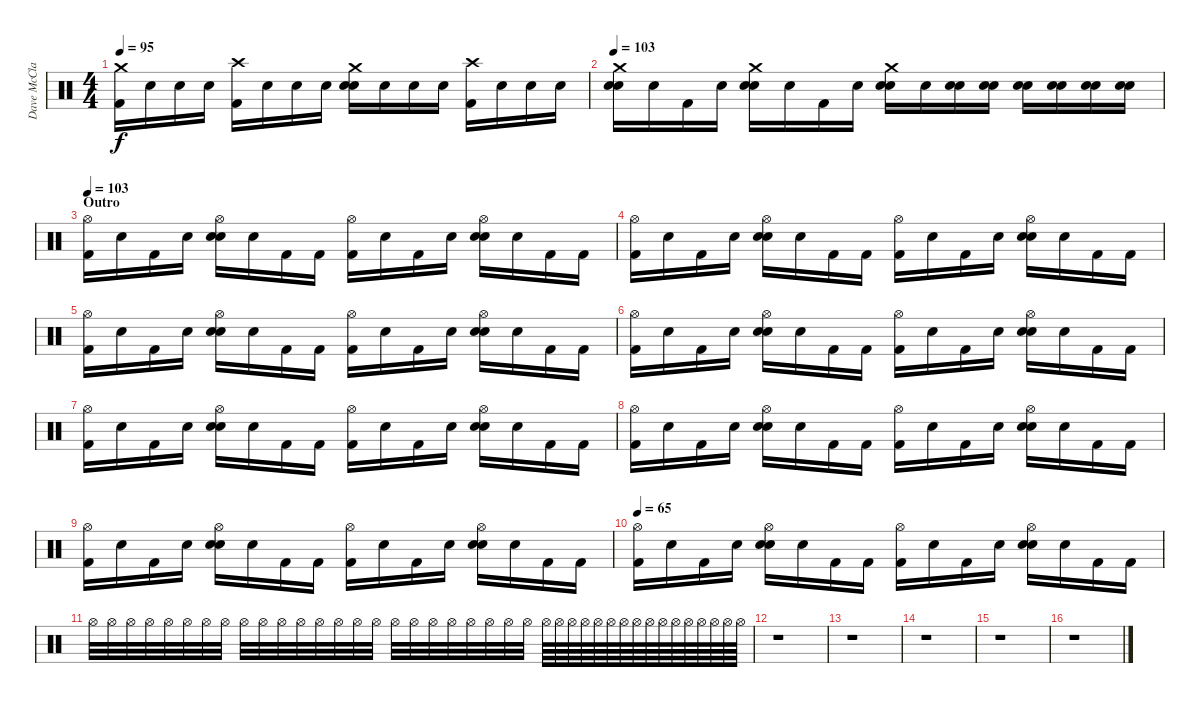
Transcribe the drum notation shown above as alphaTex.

\track ("Dave McClain - Drums" "Dave McCla") {instrument percussion}
\staff {score}
\articulation defaults
\ts (4 4)
\tempo 95
\clef neutral
\ks c
("Crash medium (hit)" "Kick (hit) 2").16{dy f} "Snare (hit)".16 "Snare (hit)".16 "Snare (hit)".16 ("Crash high (hit)" "Kick (hit) 2").16 "Snare (hit)".16 "Snare (hit)".16 "Snare (hit)".16 ("Crash medium (hit)" "Electric Snare (hit)" "Snare (hit) 2").16 "Snare (hit)".16 "Snare (hit)".16 "Snare (hit)".16 ("Crash high (hit)" "Kick (hit) 2").16 "Snare (hit)".16 "Snare (hit)".16 "Snare (hit)".16 |
\tempo 103
("Crash medium (hit)" "Electric Snare (hit)" "Snare (hit) 2").16 "Snare (hit)".16 "Kick (hit) 2".16 "Snare (hit)".16 ("Crash medium (hit)" "Electric Snare (hit)" "Snare (hit) 2").16 "Snare (hit)".16 "Kick (hit) 2".16 "Snare (hit)".16 ("Crash medium (hit)" "Electric Snare (hit)" "Snare (hit) 2").16 "Snare (hit)".16 ("Electric Snare (hit)" "Snare (hit) 2").16 ("Electric Snare (hit)" "Snare (hit) 2").16 ("Electric Snare (hit)" "Snare (hit) 2").16 ("Electric Snare (hit)" "Snare (hit) 2").16 ("Electric Snare (hit)" "Snare (hit) 2").16 ("Electric Snare (hit)" "Snare (hit) 2").16 |
\section ("" "Outro")
\tempo 103
("Hi-Hat (open)" "Kick (hit) 2").16 "Snare (hit)".16 "Kick (hit) 2".16 "Snare (hit)".16 ("Hi-Hat (open)" "Electric Snare (hit)" "Snare (hit) 2").16 "Snare (hit)".16 "Kick (hit) 2".16 "Kick (hit) 2".16 ("Hi-Hat (open)" "Kick (hit) 2").16 "Snare (hit)".16 "Kick (hit) 2".16 "Snare (hit)".16 ("Hi-Hat (open)" "Electric Snare (hit)" "Snare (hit) 2").16 "Snare (hit)".16 "Kick (hit) 2".16 "Kick (hit) 2".16 |
("Hi-Hat (open)" "Kick (hit) 2").16 "Snare (hit)".16 "Kick (hit) 2".16 "Snare (hit)".16 ("Hi-Hat (open)" "Electric Snare (hit)" "Snare (hit) 2").16 "Snare (hit)".16 "Kick (hit) 2".16 "Kick (hit) 2".16 ("Hi-Hat (open)" "Kick (hit) 2").16 "Snare (hit)".16 "Kick (hit) 2".16 "Snare (hit)".16 ("Hi-Hat (open)" "Electric Snare (hit)" "Snare (hit) 2").16 "Snare (hit)".16 "Kick (hit) 2".16 "Kick (hit) 2".16 |
("Hi-Hat (open)" "Kick (hit) 2").16 "Snare (hit)".16 "Kick (hit) 2".16 "Snare (hit)".16 ("Hi-Hat (open)" "Electric Snare (hit)" "Snare (hit) 2").16 "Snare (hit)".16 "Kick (hit) 2".16 "Kick (hit) 2".16 ("Hi-Hat (open)" "Kick (hit) 2").16 "Snare (hit)".16 "Kick (hit) 2".16 "Snare (hit)".16 ("Hi-Hat (open)" "Electric Snare (hit)" "Snare (hit) 2").16 "Snare (hit)".16 "Kick (hit) 2".16 "Kick (hit) 2".16 |
("Hi-Hat (open)" "Kick (hit) 2").16 "Snare (hit)".16 "Kick (hit) 2".16 "Snare (hit)".16 ("Hi-Hat (open)" "Electric Snare (hit)" "Snare (hit) 2").16 "Snare (hit)".16 "Kick (hit) 2".16 "Kick (hit) 2".16 ("Hi-Hat (open)" "Kick (hit) 2").16 "Snare (hit)".16 "Kick (hit) 2".16 "Snare (hit)".16 ("Hi-Hat (open)" "Electric Snare (hit)" "Snare (hit) 2").16 "Snare (hit)".16 "Kick (hit) 2".16 "Kick (hit) 2".16 |
("Hi-Hat (open)" "Kick (hit) 2").16 "Snare (hit)".16 "Kick (hit) 2".16 "Snare (hit)".16 ("Hi-Hat (open)" "Electric Snare (hit)" "Snare (hit) 2").16 "Snare (hit)".16 "Kick (hit) 2".16 "Kick (hit) 2".16 ("Hi-Hat (open)" "Kick (hit) 2").16 "Snare (hit)".16 "Kick (hit) 2".16 "Snare (hit)".16 ("Hi-Hat (open)" "Electric Snare (hit)" "Snare (hit) 2").16 "Snare (hit)".16 "Kick (hit) 2".16 "Kick (hit) 2".16 |
("Hi-Hat (open)" "Kick (hit) 2").16 "Snare (hit)".16 "Kick (hit) 2".16 "Snare (hit)".16 ("Hi-Hat (open)" "Electric Snare (hit)" "Snare (hit) 2").16 "Snare (hit)".16 "Kick (hit) 2".16 "Kick (hit) 2".16 ("Hi-Hat (open)" "Kick (hit) 2").16 "Snare (hit)".16 "Kick (hit) 2".16 "Snare (hit)".16 ("Hi-Hat (open)" "Electric Snare (hit)" "Snare (hit) 2").16 "Snare (hit)".16 "Kick (hit) 2".16 "Kick (hit) 2".16 |
("Hi-Hat (open)" "Kick (hit) 2").16 "Snare (hit)".16 "Kick (hit) 2".16 "Snare (hit)".16 ("Hi-Hat (open)" "Electric Snare (hit)" "Snare (hit) 2").16 "Snare (hit)".16 "Kick (hit) 2".16 "Kick (hit) 2".16 ("Hi-Hat (open)" "Kick (hit) 2").16 "Snare (hit)".16 "Kick (hit) 2".16 "Snare (hit)".16 ("Hi-Hat (open)" "Electric Snare (hit)" "Snare (hit) 2").16 "Snare (hit)".16 "Kick (hit) 2".16 "Kick (hit) 2".16 |
\tempo 65
("Hi-Hat (open)" "Kick (hit) 2").16 "Snare (hit)".16 "Kick (hit) 2".16 "Snare (hit)".16 ("Hi-Hat (open)" "Electric Snare (hit)" "Snare (hit) 2").16 "Snare (hit)".16 "Kick (hit) 2".16 "Kick (hit) 2".16 ("Hi-Hat (open)" "Kick (hit) 2").16 "Snare (hit)".16 "Kick (hit) 2".16 "Snare (hit)".16 ("Hi-Hat (open)" "Electric Snare (hit)" "Snare (hit) 2").16 "Snare (hit)".16 "Kick (hit) 2".16 "Kick (hit) 2".16{volume 0} |
"Hi-Hat (open)".32{volume 16} "Hi-Hat (open)".32 "Hi-Hat (open)".32 "Hi-Hat (open)".32 "Hi-Hat (open)".32 "Hi-Hat (open)".32 "Hi-Hat (open)".32 "Hi-Hat (open)".32 "Hi-Hat (open)".32 "Hi-Hat (open)".32 "Hi-Hat (open)".32 "Hi-Hat (open)".32 "Hi-Hat (open)".32 "Hi-Hat (open)".32 "Hi-Hat (open)".32 "Hi-Hat (open)".32 "Hi-Hat (open)".32 "Hi-Hat (open)".32 "Hi-Hat (open)".32 "Hi-Hat (open)".32 "Hi-Hat (open)".32 "Hi-Hat (open)".32 "Hi-Hat (open)".32 "Hi-Hat (open)".32 "Hi-Hat (open)".64 "Hi-Hat (open)".64 "Hi-Hat (open)".64 "Hi-Hat (open)".64 "Hi-Hat (open)".64 "Hi-Hat (open)".64 "Hi-Hat (open)".64 "Hi-Hat (open)".64 "Hi-Hat (open)".64 "Hi-Hat (open)".64 "Hi-Hat (open)".64 "Hi-Hat (open)".64 "Hi-Hat (open)".64 "Hi-Hat (open)".64 "Hi-Hat (open)".64 "Hi-Hat (open)".64 |
r.1 |
r.1 |
r.1 |
r.1 |
r.1
